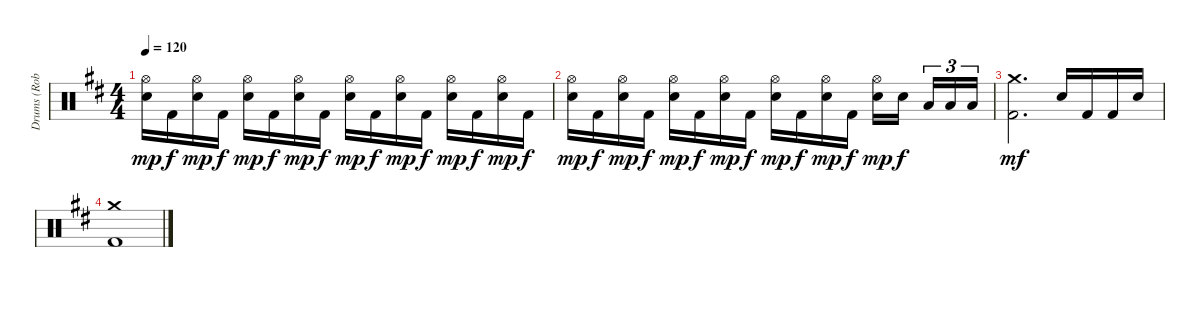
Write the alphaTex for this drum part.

\track ("Drums (Roberto Cappa)" "Drums (Rob") {instrument percussion}
\staff {score}
\articulation defaults
\ts (4 4)
\tempo 120
\clef neutral
\ks d
("Hi-Hat (open)" "Electric Snare (hit)").16{dy mp} "Kick (hit) 2".16{dy f} ("Hi-Hat (open)" "Electric Snare (hit)").16{dy mp} "Kick (hit) 2".16{dy f} ("Hi-Hat (open)" "Electric Snare (hit)").16{dy mp} "Kick (hit) 2".16{dy f} ("Hi-Hat (open)" "Electric Snare (hit)").16{dy mp} "Kick (hit) 2".16{dy f} ("Hi-Hat (open)" "Electric Snare (hit)").16{dy mp} "Kick (hit) 2".16{dy f} ("Hi-Hat (open)" "Electric Snare (hit)").16{dy mp} "Kick (hit) 2".16{dy f} ("Hi-Hat (open)" "Electric Snare (hit)").16{dy mp} "Kick (hit) 2".16{dy f} ("Hi-Hat (open)" "Electric Snare (hit)").16{dy mp} "Kick (hit) 2".16{dy f} |
("Hi-Hat (open)" "Electric Snare (hit)").16{dy mp} "Kick (hit) 2".16{dy f} ("Hi-Hat (open)" "Electric Snare (hit)").16{dy mp} "Kick (hit) 2".16{dy f} ("Hi-Hat (open)" "Electric Snare (hit)").16{dy mp} "Kick (hit) 2".16{dy f} ("Hi-Hat (open)" "Electric Snare (hit)").16{dy mp} "Kick (hit) 2".16{dy f} ("Hi-Hat (open)" "Electric Snare (hit)").16{dy mp} "Kick (hit) 2".16{dy f} ("Hi-Hat (open)" "Electric Snare (hit)").16{dy mp} "Kick (hit) 2".16{dy f} ("Hi-Hat (open)" "Electric Snare (hit)").16{dy mp} "Electric Snare (hit)".16{dy f beam splitsecondary} "Low Tom (hit)".16{tu (3 2)} "Low Tom (hit)".16{tu (3 2)} "Low Tom (hit)".16{tu (3 2)} |
("Crash medium (hit)" "Kick (hit) 2").2{d dy mf} "Electric Snare (hit)".16 "Kick (hit) 2".16 "Kick (hit) 2".16 "Electric Snare (hit)".16 |
("Crash medium (hit)" "Kick (hit) 2").1
